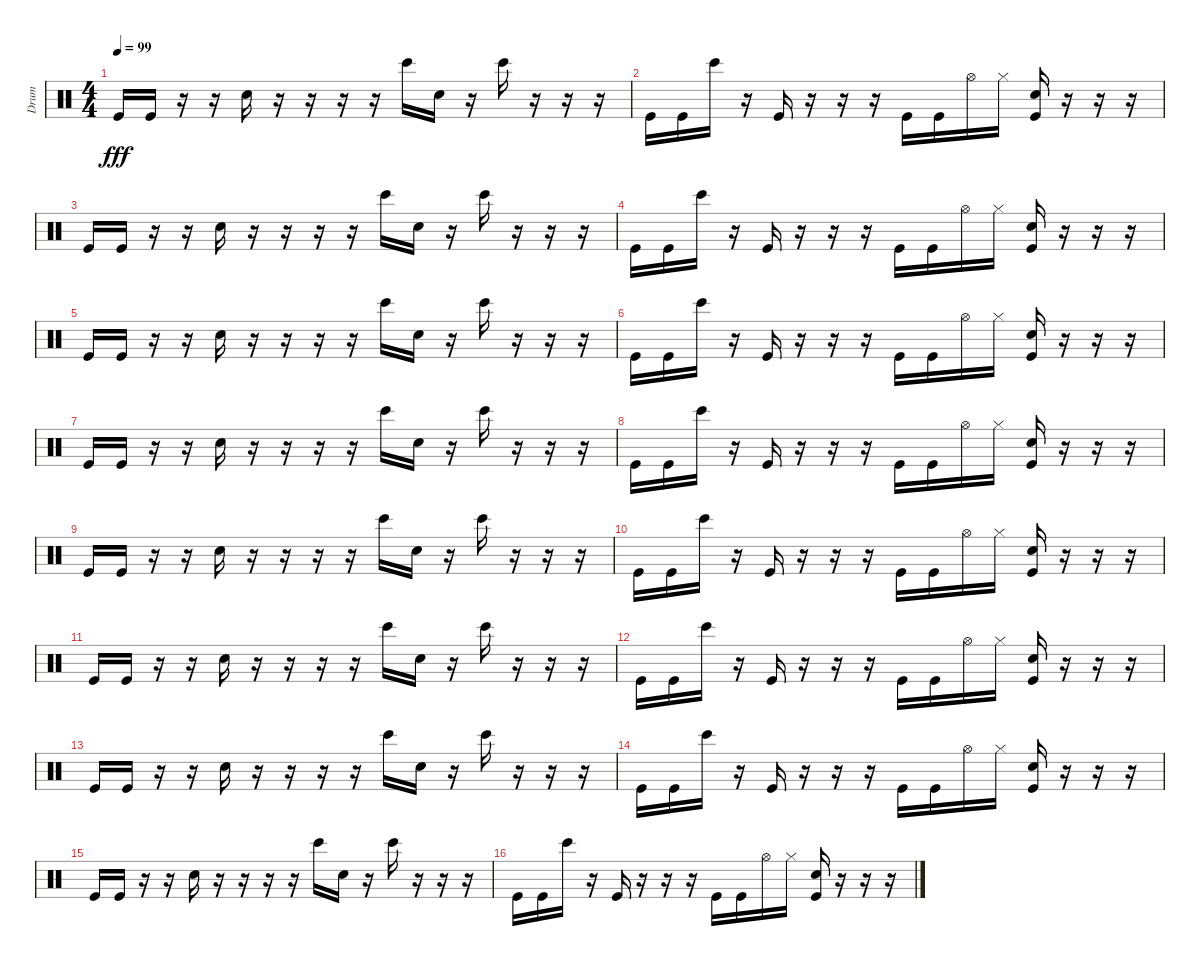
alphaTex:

\track ("Drum" "Drum") {instrument percussion}
\staff {score}
\articulation defaults
\ts (4 4)
\tempo 99
\clef neutral
\ks c "Kick (hit)".16{dy fff} "Kick (hit)".16
r.16 r.16 "Hand Clap (hit)".16 r.16 r.16 r.16 r.16 "Bongo High (hit)".16 "Hand Clap (hit)".16 r.16 "Bongo High (hit)".16 r.16 r.16 r.16 |
"Kick (hit)".16 "Kick (hit)".16 "Bongo High (hit)".16 r.16 "Kick (hit)".16 r.16 r.16 r.16 "Kick (hit)".16 "Kick (hit)".16 "Hi-Hat (open)".16 "Hi-Hat (closed)".16 ("Hand Clap (hit)" "Kick (hit)").16 r.16 r.16 r.16 |
"Kick (hit)".16 "Kick (hit)".16 r.16 r.16 "Hand Clap (hit)".16 r.16 r.16 r.16 r.16 "Bongo High (hit)".16 "Hand Clap (hit)".16 r.16 "Bongo High (hit)".16 r.16 r.16 r.16 |
"Kick (hit)".16 "Kick (hit)".16 "Bongo High (hit)".16 r.16 "Kick (hit)".16 r.16 r.16 r.16 "Kick (hit)".16 "Kick (hit)".16 "Hi-Hat (open)".16 "Hi-Hat (closed)".16 ("Hand Clap (hit)" "Kick (hit)").16 r.16 r.16 r.16 |
"Kick (hit)".16 "Kick (hit)".16 r.16 r.16 "Hand Clap (hit)".16 r.16 r.16 r.16 r.16 "Bongo High (hit)".16 "Hand Clap (hit)".16 r.16 "Bongo High (hit)".16 r.16 r.16 r.16 |
"Kick (hit)".16 "Kick (hit)".16 "Bongo High (hit)".16 r.16 "Kick (hit)".16 r.16 r.16 r.16 "Kick (hit)".16 "Kick (hit)".16 "Hi-Hat (open)".16 "Hi-Hat (closed)".16 ("Hand Clap (hit)" "Kick (hit)").16 r.16 r.16 r.16 |
"Kick (hit)".16 "Kick (hit)".16 r.16 r.16 "Hand Clap (hit)".16 r.16 r.16 r.16 r.16 "Bongo High (hit)".16 "Hand Clap (hit)".16 r.16 "Bongo High (hit)".16 r.16 r.16 r.16 |
"Kick (hit)".16 "Kick (hit)".16 "Bongo High (hit)".16 r.16 "Kick (hit)".16 r.16 r.16 r.16 "Kick (hit)".16 "Kick (hit)".16 "Hi-Hat (open)".16 "Hi-Hat (closed)".16 ("Hand Clap (hit)" "Kick (hit)").16 r.16 r.16 r.16 |
"Kick (hit)".16 "Kick (hit)".16 r.16 r.16 "Hand Clap (hit)".16 r.16 r.16 r.16 r.16 "Bongo High (hit)".16 "Hand Clap (hit)".16 r.16 "Bongo High (hit)".16 r.16 r.16 r.16 |
"Kick (hit)".16 "Kick (hit)".16 "Bongo High (hit)".16 r.16 "Kick (hit)".16 r.16 r.16 r.16 "Kick (hit)".16 "Kick (hit)".16 "Hi-Hat (open)".16 "Hi-Hat (closed)".16 ("Hand Clap (hit)" "Kick (hit)").16 r.16 r.16 r.16 |
"Kick (hit)".16 "Kick (hit)".16 r.16 r.16 "Hand Clap (hit)".16 r.16 r.16 r.16 r.16 "Bongo High (hit)".16 "Hand Clap (hit)".16 r.16 "Bongo High (hit)".16 r.16 r.16 r.16 |
"Kick (hit)".16 "Kick (hit)".16 "Bongo High (hit)".16 r.16 "Kick (hit)".16 r.16 r.16 r.16 "Kick (hit)".16 "Kick (hit)".16 "Hi-Hat (open)".16 "Hi-Hat (closed)".16 ("Hand Clap (hit)" "Kick (hit)").16 r.16 r.16 r.16 |
"Kick (hit)".16 "Kick (hit)".16 r.16 r.16 "Hand Clap (hit)".16 r.16 r.16 r.16 r.16 "Bongo High (hit)".16 "Hand Clap (hit)".16 r.16 "Bongo High (hit)".16 r.16 r.16 r.16 |
"Kick (hit)".16 "Kick (hit)".16 "Bongo High (hit)".16 r.16 "Kick (hit)".16 r.16 r.16 r.16 "Kick (hit)".16 "Kick (hit)".16 "Hi-Hat (open)".16 "Hi-Hat (closed)".16 ("Hand Clap (hit)" "Kick (hit)").16 r.16 r.16 r.16 |
"Kick (hit)".16 "Kick (hit)".16 r.16 r.16 "Hand Clap (hit)".16 r.16 r.16 r.16 r.16 "Bongo High (hit)".16 "Hand Clap (hit)".16 r.16 "Bongo High (hit)".16 r.16 r.16 r.16 |
"Kick (hit)".16 "Kick (hit)".16 "Bongo High (hit)".16 r.16 "Kick (hit)".16 r.16 r.16 r.16 "Kick (hit)".16 "Kick (hit)".16 "Hi-Hat (open)".16 "Hi-Hat (closed)".16 ("Hand Clap (hit)" "Kick (hit)").16 r.16 r.16 r.16
